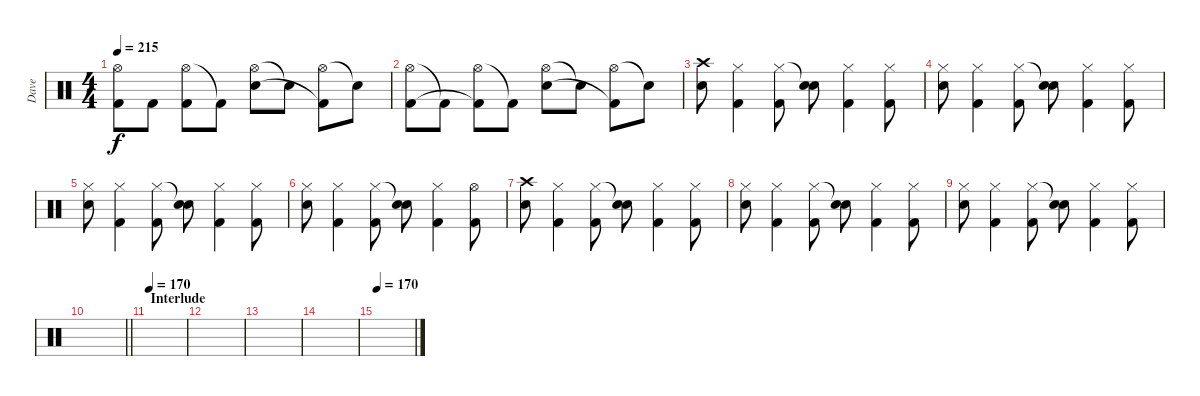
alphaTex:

\track ("Dave" "Dave") {instrument percussion}
\staff {score}
\articulation defaults
\ts (4 4)
\tempo 215
\clef neutral
\ks c
("Hi-Hat (open)" "Kick (hit) 2").8{dy f} "Kick (hit) 2".8 ("Hi-Hat (open)" "Kick (hit) 2").8 "Kick (hit) 2"{t}.8 ("Hi-Hat (open)" "Electric Snare (hit)").8 "Snare (hit)"{t}.8 ("Hi-Hat (open)" "Kick (hit) 2"{t}).8 "Snare (hit)"{t}.8 |
("Hi-Hat (open)" "Kick (hit) 2").8 "Kick (hit) 2"{t}.8 ("Hi-Hat (open)" "Kick (hit) 2"{t}).8 "Kick (hit) 2"{t}.8 ("Hi-Hat (open)" "Electric Snare (hit)").8 "Snare (hit)"{t}.8 ("Hi-Hat (open)" "Kick (hit) 2"{t}).8 "Snare (hit)"{t}.8 |
("Crash high (hit)" "Electric Snare (hit)").8 ("Hi-Hat (closed)" "Kick (hit) 2").4 ("Hi-Hat (closed)" "Kick (hit) 2").8 ("Snare (hit)"{t} "Electric Snare (hit)").8 ("Hi-Hat (closed)" "Kick (hit) 2").4 ("Hi-Hat (closed)" "Kick (hit) 2").8 |
("Hi-Hat (closed)" "Electric Snare (hit)").8 ("Hi-Hat (closed)" "Kick (hit) 2").4 ("Hi-Hat (closed)" "Kick (hit) 2").8 ("Snare (hit)"{t} "Electric Snare (hit)").8 ("Hi-Hat (closed)" "Kick (hit) 2").4 ("Hi-Hat (closed)" "Kick (hit) 2").8 |
("Hi-Hat (closed)" "Electric Snare (hit)").8 ("Hi-Hat (closed)" "Kick (hit) 2").4 ("Hi-Hat (closed)" "Kick (hit) 2").8 ("Snare (hit)"{t} "Electric Snare (hit)").8 ("Hi-Hat (closed)" "Kick (hit) 2").4 ("Hi-Hat (closed)" "Kick (hit) 2").8 |
("Hi-Hat (closed)" "Electric Snare (hit)").8 ("Hi-Hat (closed)" "Kick (hit) 2").4 ("Hi-Hat (closed)" "Kick (hit) 2").8 ("Snare (hit)"{t} "Electric Snare (hit)").8 ("Hi-Hat (closed)" "Kick (hit) 2").4 ("Hi-Hat (open)" "Kick (hit) 2").8 |
("Crash high (hit)" "Electric Snare (hit)").8 ("Hi-Hat (closed)" "Kick (hit) 2").4 ("Hi-Hat (closed)" "Kick (hit) 2").8 ("Snare (hit)"{t} "Electric Snare (hit)").8 ("Hi-Hat (closed)" "Kick (hit) 2").4 ("Hi-Hat (closed)" "Kick (hit) 2").8 |
("Hi-Hat (closed)" "Electric Snare (hit)").8 ("Hi-Hat (closed)" "Kick (hit) 2").4 ("Hi-Hat (closed)" "Kick (hit) 2").8 ("Snare (hit)"{t} "Electric Snare (hit)").8 ("Hi-Hat (closed)" "Kick (hit) 2").4 ("Hi-Hat (closed)" "Kick (hit) 2").8 |
("Hi-Hat (closed)" "Electric Snare (hit)").8 ("Hi-Hat (closed)" "Kick (hit) 2").4 ("Hi-Hat (closed)" "Kick (hit) 2").8 ("Snare (hit)"{t} "Electric Snare (hit)").8 ("Hi-Hat (closed)" "Kick (hit) 2").4 ("Hi-Hat (closed)" "Kick (hit) 2").8 |
\barLineRight lightlight
|
\section ("" "Interlude")
\tempo 170
|
|
|
|
\tempo 170
